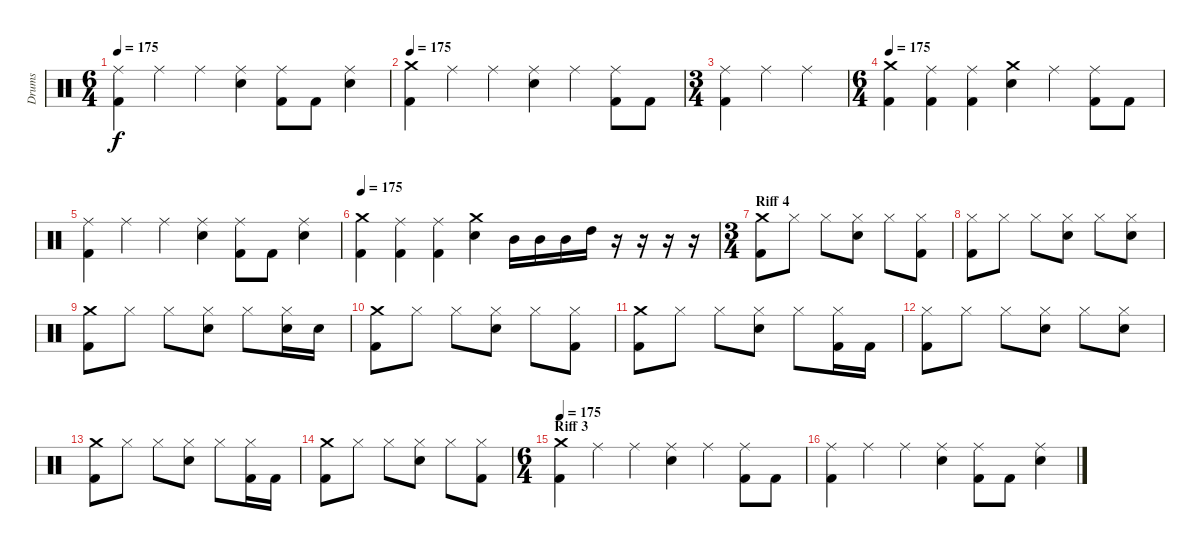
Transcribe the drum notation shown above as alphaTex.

\track ("Drums" "Drums") {instrument percussion}
\staff {score}
\articulation defaults
\ts (6 4)
\tempo 175
\clef neutral
\ks c
("Ride (middle)" "Kick (hit) 2").4{dy f} "Ride (middle)".4 "Ride (middle)".4 ("Ride (middle)" "Electric Snare (hit)").4 ("Ride (middle)" "Kick (hit) 2").8 "Kick (hit) 2".8 ("Ride (middle)" "Electric Snare (hit)").4 |
\tempo 175
("Crash medium (hit)" "Kick (hit) 2").4 "Ride (middle)".4 "Ride (middle)".4 ("Ride (middle)" "Electric Snare (hit)").4 "Ride (middle)".4 ("Ride (middle)" "Kick (hit) 2").8 "Kick (hit) 2".8 |
\ts (3 4)
("Ride (middle)" "Kick (hit) 2").4 "Ride (middle)".4 "Ride (middle)".4 |
\ts (6 4)
\tempo 175
("Crash medium (hit)" "Kick (hit) 2").4 ("Ride (middle)" "Kick (hit) 2").4 ("Ride (middle)" "Kick (hit) 2").4 ("Crash medium (hit)" "Electric Snare (hit)").4 "Ride (middle)".4 ("Ride (middle)" "Kick (hit) 2").8 "Kick (hit) 2".8 |
("Ride (middle)" "Kick (hit) 2").4 "Ride (middle)".4 "Ride (middle)".4 ("Ride (middle)" "Electric Snare (hit)").4 ("Ride (middle)" "Kick (hit) 2").8 "Kick (hit) 2".8 ("Ride (middle)" "Electric Snare (hit)").4 |
\tempo 175
("Crash medium (hit)" "Kick (hit) 2").4 ("Ride (middle)" "Kick (hit) 2").4 ("Ride (middle)" "Kick (hit) 2").4 ("Crash medium (hit)" "Electric Snare (hit)").4 "Mid Tom (hit)".16 "Mid Tom (hit)".16 "Mid Tom (hit)".16 "High Tom (hit)".16 r.16 r.16 r.16 r.16 |
\ts (3 4)
\section ("" "Riff 4")
("Crash medium (hit)" "Kick (hit) 2").8 "Hi-Hat (closed)".8 "Hi-Hat (closed)".8 ("Hi-Hat (closed)" "Electric Snare (hit)").8 "Hi-Hat (closed)".8 ("Hi-Hat (closed)" "Kick (hit) 2").8 |
("Hi-Hat (closed)" "Kick (hit) 2").8 "Hi-Hat (closed)".8 "Hi-Hat (closed)".8 ("Hi-Hat (closed)" "Electric Snare (hit)").8 "Hi-Hat (closed)".8 ("Hi-Hat (closed)" "Electric Snare (hit)").8 |
("Crash medium (hit)" "Kick (hit) 2").8 "Hi-Hat (closed)".8 "Hi-Hat (closed)".8 ("Hi-Hat (closed)" "Electric Snare (hit)").8 "Hi-Hat (closed)".8 ("Hi-Hat (closed)" "Electric Snare (hit)").16 "Electric Snare (hit)".16 |
("Crash medium (hit)" "Kick (hit) 2").8 "Hi-Hat (closed)".8 "Hi-Hat (closed)".8 ("Hi-Hat (closed)" "Electric Snare (hit)").8 "Hi-Hat (closed)".8 ("Hi-Hat (closed)" "Kick (hit) 2").8 |
("Crash medium (hit)" "Kick (hit) 2").8 "Hi-Hat (closed)".8 "Hi-Hat (closed)".8 ("Hi-Hat (closed)" "Electric Snare (hit)").8 "Hi-Hat (closed)".8 ("Hi-Hat (closed)" "Kick (hit) 2").16 "Kick (hit) 2".16 |
("Hi-Hat (closed)" "Kick (hit) 2").8 "Hi-Hat (closed)".8 "Hi-Hat (closed)".8 ("Hi-Hat (closed)" "Electric Snare (hit)").8 "Hi-Hat (closed)".8 ("Hi-Hat (closed)" "Electric Snare (hit)").8 |
("Crash medium (hit)" "Kick (hit) 2").8 "Hi-Hat (closed)".8 "Hi-Hat (closed)".8 ("Hi-Hat (closed)" "Electric Snare (hit)").8 "Hi-Hat (closed)".8 ("Hi-Hat (closed)" "Kick (hit) 2").16 "Kick (hit) 2".16 |
("Crash medium (hit)" "Kick (hit) 2").8 "Hi-Hat (closed)".8 "Hi-Hat (closed)".8 ("Hi-Hat (closed)" "Electric Snare (hit)").8 "Hi-Hat (closed)".8 ("Hi-Hat (closed)" "Kick (hit) 2").8 |
\ts (6 4)
\section ("" "Riff 3")
\tempo 175
("Crash medium (hit)" "Kick (hit) 2").4 "Ride (middle)".4 "Ride (middle)".4 ("Ride (middle)" "Electric Snare (hit)").4 "Ride (middle)".4 ("Ride (middle)" "Kick (hit) 2").8 "Kick (hit) 2".8 |
("Ride (middle)" "Kick (hit) 2").4 "Ride (middle)".4 "Ride (middle)".4 ("Ride (middle)" "Electric Snare (hit)").4 ("Ride (middle)" "Kick (hit) 2").8 "Kick (hit) 2".8 ("Ride (middle)" "Electric Snare (hit)").4
